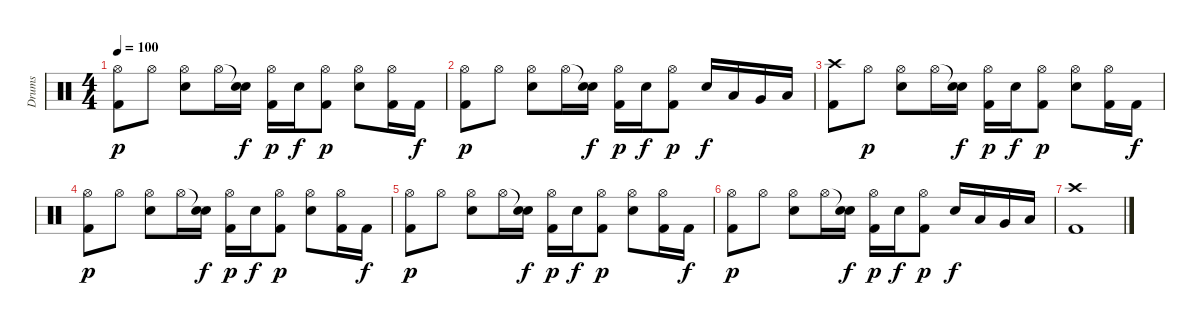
\track ("Drums" "Drums") {instrument percussion}
\staff {score}
\articulation defaults
\ts (4 4)
\tempo 100
\clef neutral
\ks c
("Hi-Hat (open)" "Kick (hit) 2").8{dy p} "Hi-Hat (open)".8 ("Hi-Hat (open)" "Electric Snare (hit)").8 "Hi-Hat (open)".16 ("Snare (hit)"{t} "Electric Snare (hit)").16{dy f} ("Hi-Hat (open)" "Kick (hit) 2").16{dy p} "Electric Snare (hit)".16{dy f} ("Hi-Hat (open)" "Kick (hit) 2").8{dy p} ("Hi-Hat (open)" "Electric Snare (hit)").8 ("Hi-Hat (open)" "Kick (hit) 2").16 "Kick (hit) 2".16{dy f} |
("Hi-Hat (open)" "Kick (hit) 2").8{dy p} "Hi-Hat (open)".8 ("Hi-Hat (open)" "Electric Snare (hit)").8 "Hi-Hat (open)".16 ("Snare (hit)"{t} "Electric Snare (hit)").16{dy f} ("Hi-Hat (open)" "Kick (hit) 2").16{dy p} "Electric Snare (hit)".16{dy f} ("Hi-Hat (open)" "Kick (hit) 2").8{dy p} "Electric Snare (hit)".16{dy f} "Low Tom (hit)".16 "Very Low Tom (hit)".16 "Low Floor Tom (hit)".16 |
("Crash high (hit)" "Kick (hit) 2").8 "Hi-Hat (open)".8{dy p} ("Hi-Hat (open)" "Electric Snare (hit)").8 "Hi-Hat (open)".16 ("Snare (hit)"{t} "Electric Snare (hit)").16{dy f} ("Hi-Hat (open)" "Kick (hit) 2").16{dy p} "Electric Snare (hit)".16{dy f} ("Hi-Hat (open)" "Kick (hit) 2").8{dy p} ("Hi-Hat (open)" "Electric Snare (hit)").8 ("Hi-Hat (open)" "Kick (hit) 2").16 "Kick (hit) 2".16{dy f} |
("Hi-Hat (open)" "Kick (hit) 2").8{dy p} "Hi-Hat (open)".8 ("Hi-Hat (open)" "Electric Snare (hit)").8 "Hi-Hat (open)".16 ("Snare (hit)"{t} "Electric Snare (hit)").16{dy f} ("Hi-Hat (open)" "Kick (hit) 2").16{dy p} "Electric Snare (hit)".16{dy f} ("Hi-Hat (open)" "Kick (hit) 2").8{dy p} ("Hi-Hat (open)" "Electric Snare (hit)").8 ("Hi-Hat (open)" "Kick (hit) 2").16 "Kick (hit) 2".16{dy f} |
("Hi-Hat (open)" "Kick (hit) 2").8{dy p} "Hi-Hat (open)".8 ("Hi-Hat (open)" "Electric Snare (hit)").8 "Hi-Hat (open)".16 ("Snare (hit)"{t} "Electric Snare (hit)").16{dy f} ("Hi-Hat (open)" "Kick (hit) 2").16{dy p} "Electric Snare (hit)".16{dy f} ("Hi-Hat (open)" "Kick (hit) 2").8{dy p} ("Hi-Hat (open)" "Electric Snare (hit)").8 ("Hi-Hat (open)" "Kick (hit) 2").16 "Kick (hit) 2".16{dy f} |
("Hi-Hat (open)" "Kick (hit) 2").8{dy p} "Hi-Hat (open)".8 ("Hi-Hat (open)" "Electric Snare (hit)").8 "Hi-Hat (open)".16 ("Snare (hit)"{t} "Electric Snare (hit)").16{dy f} ("Hi-Hat (open)" "Kick (hit) 2").16{dy p} "Electric Snare (hit)".16{dy f} ("Hi-Hat (open)" "Kick (hit) 2").8{dy p} "Electric Snare (hit)".16{dy f} "Low Tom (hit)".16 "Very Low Tom (hit)".16 "Low Floor Tom (hit)".16 |
("Crash high (hit)" "Kick (hit) 2").1
